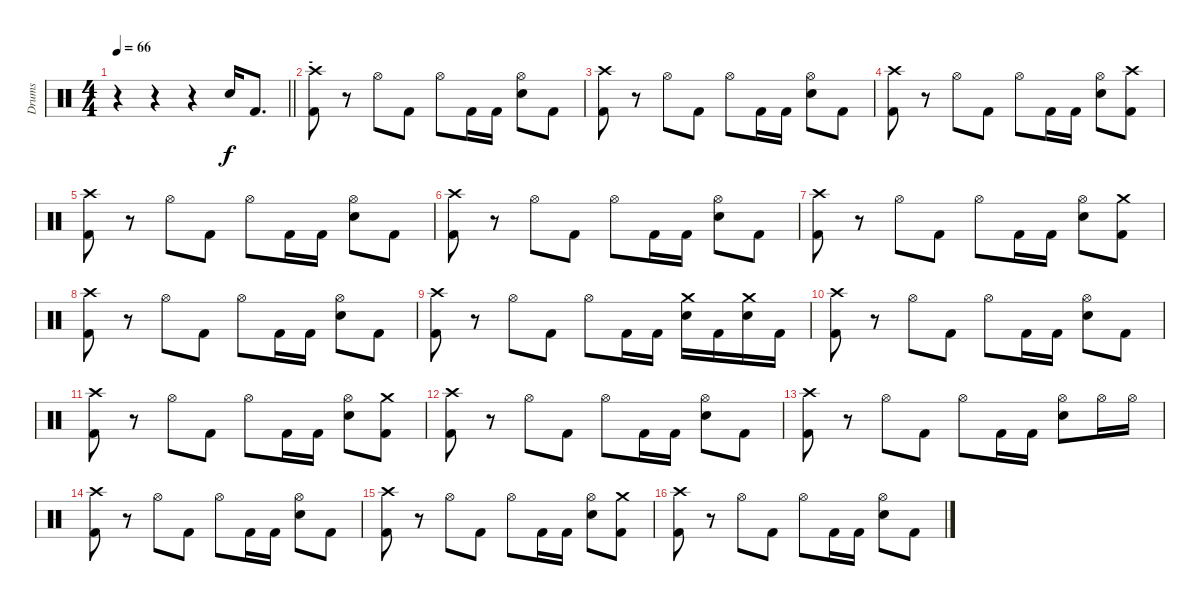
\track ("Drums" "Drums") {instrument percussion}
\staff {score}
\articulation defaults
\ts (4 4)
\tempo 66
\clef neutral
\barLineRight lightlight
\ks c
r.4{dy f} r.4 r.4 "Snare (hit) 2".16 "Kick (hit) 2".8{d} |
\section ("" "-")
("Crash high (hit)" "Kick (hit) 2").8 r.8 "Hi-Hat (open)".8 "Kick (hit) 2".8 "Hi-Hat (open)".8 "Kick (hit) 2".16 "Kick (hit) 2".16 ("Hi-Hat (open)" "Snare (hit) 2").8 "Kick (hit) 2".8 |
("Crash high (hit)" "Kick (hit) 2").8 r.8 "Hi-Hat (open)".8 "Kick (hit) 2".8 "Hi-Hat (open)".8 "Kick (hit) 2".16 "Kick (hit) 2".16 ("Hi-Hat (open)" "Snare (hit) 2").8 "Kick (hit) 2".8 |
("Crash high (hit)" "Kick (hit) 2").8 r.8 "Hi-Hat (open)".8 "Kick (hit) 2".8 "Hi-Hat (open)".8 "Kick (hit) 2".16 "Kick (hit) 2".16 ("Hi-Hat (open)" "Snare (hit) 2").8 ("Crash high (hit)" "Kick (hit) 2").8 |
("Crash high (hit)" "Kick (hit) 2").8 r.8 "Hi-Hat (open)".8 "Kick (hit) 2".8 "Hi-Hat (open)".8 "Kick (hit) 2".16 "Kick (hit) 2".16 ("Hi-Hat (open)" "Snare (hit) 2").8 "Kick (hit) 2".8 |
("Crash high (hit)" "Kick (hit) 2").8 r.8 "Hi-Hat (open)".8 "Kick (hit) 2".8 "Hi-Hat (open)".8 "Kick (hit) 2".16 "Kick (hit) 2".16 ("Hi-Hat (open)" "Snare (hit) 2").8 "Kick (hit) 2".8 |
("Crash high (hit)" "Kick (hit) 2").8 r.8 "Hi-Hat (open)".8 "Kick (hit) 2".8 "Hi-Hat (open)".8 "Kick (hit) 2".16 "Kick (hit) 2".16 ("Hi-Hat (open)" "Snare (hit) 2").8 ("Crash medium (hit)" "Kick (hit) 2").8 |
("Crash high (hit)" "Kick (hit) 2").8 r.8 "Hi-Hat (open)".8 "Kick (hit) 2".8 "Hi-Hat (open)".8 "Kick (hit) 2".16 "Kick (hit) 2".16 ("Hi-Hat (open)" "Snare (hit) 2").8 "Kick (hit) 2".8 |
("Crash high (hit)" "Kick (hit) 2").8 r.8 "Hi-Hat (open)".8 "Kick (hit) 2".8 "Hi-Hat (open)".8 "Kick (hit) 2".16 "Kick (hit) 2".16 ("Crash medium (hit)" "Snare (hit) 2").16 "Kick (hit) 2".16 ("Crash medium (hit)" "Snare (hit) 2").16 "Kick (hit) 2".16 |
("Crash high (hit)" "Kick (hit) 2").8 r.8 "Hi-Hat (open)".8 "Kick (hit) 2".8 "Hi-Hat (open)".8 "Kick (hit) 2".16 "Kick (hit) 2".16 ("Hi-Hat (open)" "Snare (hit) 2").8 "Kick (hit) 2".8 |
("Crash high (hit)" "Kick (hit) 2").8 r.8 "Hi-Hat (open)".8 "Kick (hit) 2".8 "Hi-Hat (open)".8 "Kick (hit) 2".16 "Kick (hit) 2".16 ("Hi-Hat (open)" "Snare (hit) 2").8 ("Crash medium (hit)" "Kick (hit) 2").8 |
("Crash high (hit)" "Kick (hit) 2").8 r.8 "Hi-Hat (open)".8 "Kick (hit) 2".8 "Hi-Hat (open)".8 "Kick (hit) 2".16 "Kick (hit) 2".16 ("Hi-Hat (open)" "Snare (hit) 2").8 "Kick (hit) 2".8 |
("Crash high (hit)" "Kick (hit) 2").8 r.8 "Hi-Hat (open)".8 "Kick (hit) 2".8 "Hi-Hat (open)".8 "Kick (hit) 2".16 "Kick (hit) 2".16 ("Hi-Hat (open)" "Snare (hit) 2").8 "Hi-Hat (open)".16 "Hi-Hat (open)".16 |
("Crash high (hit)" "Kick (hit) 2").8 r.8 "Hi-Hat (open)".8 "Kick (hit) 2".8 "Hi-Hat (open)".8 "Kick (hit) 2".16 "Kick (hit) 2".16 ("Hi-Hat (open)" "Snare (hit) 2").8 "Kick (hit) 2".8 |
("Crash high (hit)" "Kick (hit) 2").8 r.8 "Hi-Hat (open)".8 "Kick (hit) 2".8 "Hi-Hat (open)".8 "Kick (hit) 2".16 "Kick (hit) 2".16 ("Hi-Hat (open)" "Snare (hit) 2").8 ("Crash medium (hit)" "Kick (hit) 2").8 |
("Crash high (hit)" "Kick (hit) 2").8 r.8 "Hi-Hat (open)".8 "Kick (hit) 2".8 "Hi-Hat (open)".8 "Kick (hit) 2".16 "Kick (hit) 2".16 ("Hi-Hat (open)" "Snare (hit) 2").8 "Kick (hit) 2".8
